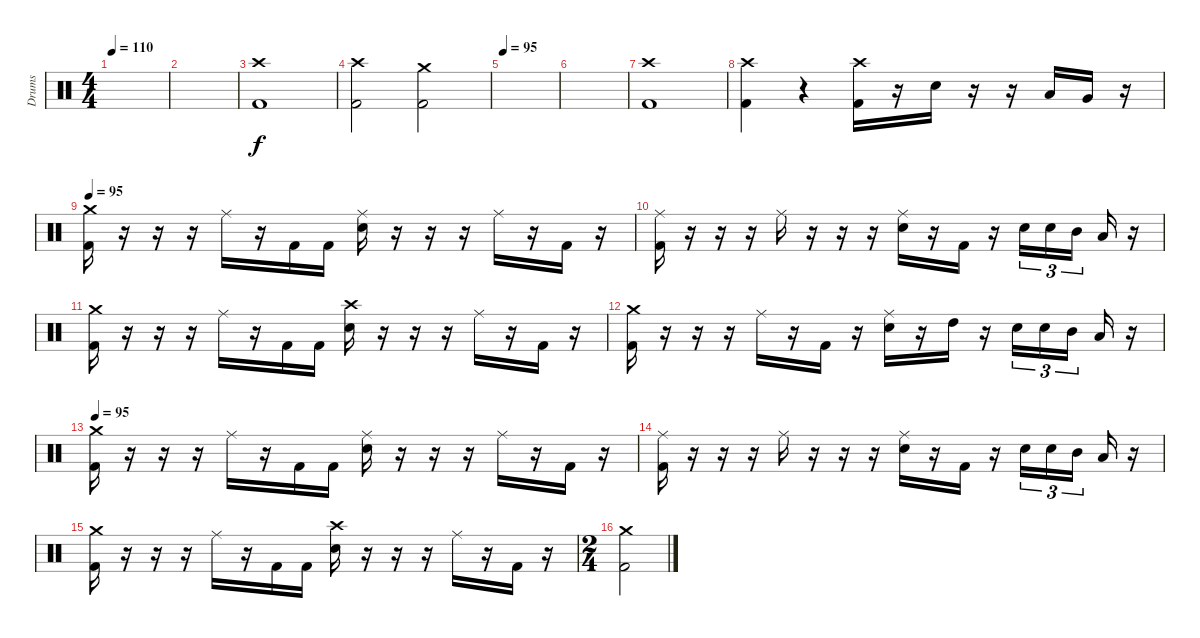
\track ("Drums" "Drums") {instrument percussion}
\staff {score}
\articulation defaults
\ts (4 4)
\tempo 110
\tempo 95
\tempo 110
\clef neutral
\ks c
|
|
("Crash high (hit)" "Kick (hit) 2").1 |
("Crash high (hit)" "Kick (hit) 2").2 ("Crash medium (hit)" "Kick (hit) 2").2 |
\tempo 95
|
|
("Crash high (hit)" "Kick (hit) 2").1 |
("Crash high (hit)" "Kick (hit) 2").4 r.4 ("Crash high (hit)" "Kick (hit) 2").16 r.16 "Electric Snare (hit)".16 r.16 r.16 "Low Tom (hit)".16 "Very Low Tom (hit)".16 r.16 |
\tempo 95
("Crash medium (hit)" "Kick (hit) 2").16 r.16 r.16 r.16 "Ride (middle)".16 r.16 "Kick (hit) 2".16 "Kick (hit) 2".16 ("Ride (middle)" "Electric Snare (hit)").16 r.16 r.16 r.16 "Ride (middle)".16 r.16 "Kick (hit) 2".16 r.16 |
("Ride (middle)" "Kick (hit) 2").16 r.16 r.16 r.16 "Ride (middle)".16 r.16 r.16 r.16 ("Ride (middle)" "Electric Snare (hit)").16 r.16 "Kick (hit) 2".16 r.16 "Electric Snare (hit)".16{tu (3 2)} "Electric Snare (hit)".16{tu (3 2)} "Mid Tom (hit)".16{tu (3 2) beam splitsecondary} "Low Tom (hit)".16 r.16 |
("Crash medium (hit)" "Kick (hit) 2").16 r.16 r.16 r.16 "Ride (middle)".16 r.16 "Kick (hit) 2".16 "Kick (hit) 2".16 ("Crash high (hit)" "Electric Snare (hit)").16 r.16 r.16 r.16 "Ride (middle)".16 r.16 "Kick (hit) 2".16 r.16 |
("Crash medium (hit)" "Kick (hit) 2").16 r.16 r.16 r.16 "Ride (middle)".16 r.16 "Kick (hit) 2".16 r.16 ("Ride (middle)" "Electric Snare (hit)").16 r.16 "High Tom (hit)".16 r.16 "Electric Snare (hit)".16{tu (3 2)} "Electric Snare (hit)".16{tu (3 2)} "Mid Tom (hit)".16{tu (3 2) beam splitsecondary} "Low Tom (hit)".16 r.16 |
\tempo 95
("Crash medium (hit)" "Kick (hit) 2").16 r.16 r.16 r.16 "Ride (middle)".16 r.16 "Kick (hit) 2".16 "Kick (hit) 2".16 ("Ride (middle)" "Electric Snare (hit)").16 r.16 r.16 r.16 "Ride (middle)".16 r.16 "Kick (hit) 2".16 r.16 |
("Ride (middle)" "Kick (hit) 2").16 r.16 r.16 r.16 "Ride (middle)".16 r.16 r.16 r.16 ("Ride (middle)" "Electric Snare (hit)").16 r.16 "Kick (hit) 2".16 r.16 "Electric Snare (hit)".16{tu (3 2)} "Electric Snare (hit)".16{tu (3 2)} "Mid Tom (hit)".16{tu (3 2) beam splitsecondary} "Low Tom (hit)".16 r.16 |
("Crash medium (hit)" "Kick (hit) 2").16 r.16 r.16 r.16 "Ride (middle)".16 r.16 "Kick (hit) 2".16 "Kick (hit) 2".16 ("Crash high (hit)" "Electric Snare (hit)").16 r.16 r.16 r.16 "Ride (middle)".16 r.16 "Kick (hit) 2".16 r.16 |
\ts (2 4)
("Crash medium (hit)" "Kick (hit) 2").2
